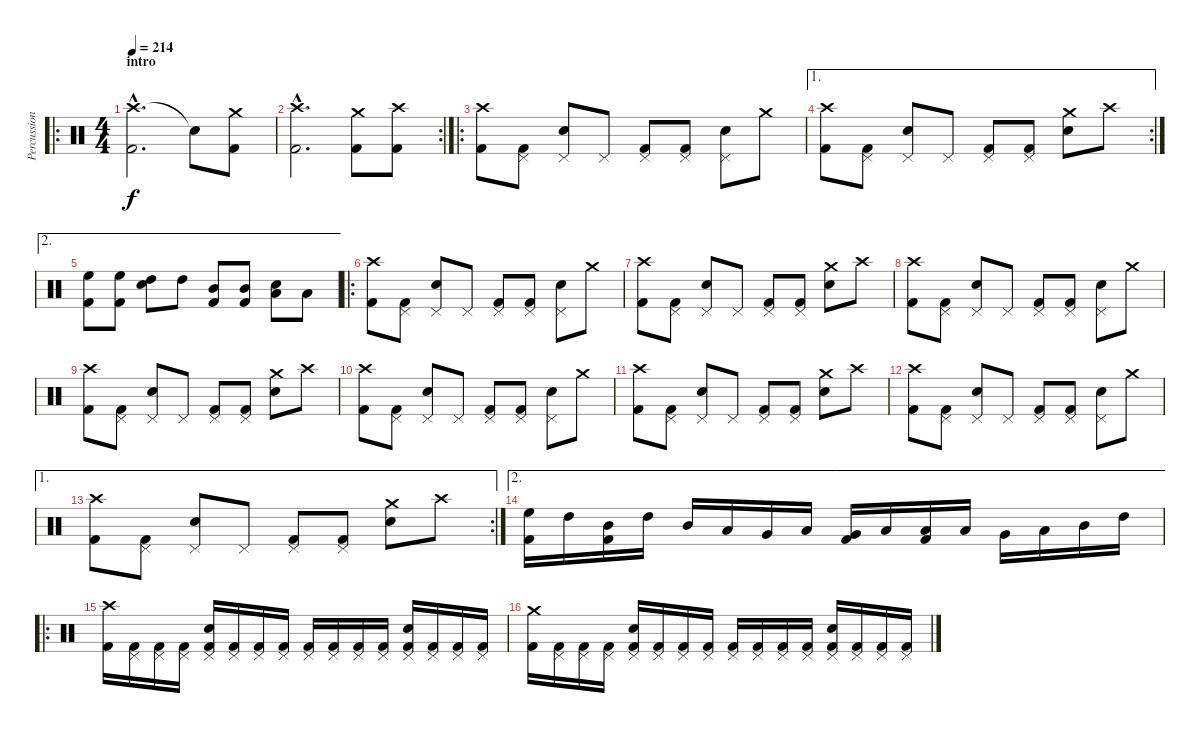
\track ("Percussion" "Percussion") {instrument percussion}
\staff {score}
\articulation defaults
\ro
\ts (4 4)
\section ("" "intro")
\tempo 214
\clef neutral
\ks c
("Crash high (hit)"{hac} "Kick (hit) 2"{hac}).2{d dy f} "Snare (hit)"{t}.8 ("Crash medium (hit)" "Kick (hit) 2").8 |
\rc 2
("Crash high (hit)"{hac} "Kick (hit) 2"{hac}).2{d} ("Crash medium (hit)" "Kick (hit) 2").8 ("Crash high (hit)" "Kick (hit) 2").8 |
\ro
("Crash high (hit)" "Kick (hit) 2").8 ("Pedal Hi-Hat (hit)" "Kick (hit) 2").8 ("Pedal Hi-Hat (hit)" "Snare (hit) 2").8 "Pedal Hi-Hat (hit)".8 ("Pedal Hi-Hat (hit)" "Kick (hit) 2").8 ("Pedal Hi-Hat (hit)" "Kick (hit) 2").8 ("Pedal Hi-Hat (hit)" "Snare (hit) 2").8 "Crash medium (hit)".8 |
\ae 1
\rc 2
("Crash high (hit)" "Kick (hit) 2").8 ("Pedal Hi-Hat (hit)" "Kick (hit) 2").8 ("Pedal Hi-Hat (hit)" "Snare (hit) 2").8 "Pedal Hi-Hat (hit)".8 ("Pedal Hi-Hat (hit)" "Kick (hit) 2").8 ("Pedal Hi-Hat (hit)" "Kick (hit) 2").8 ("Crash medium (hit)" "Snare (hit) 2").8 "Crash high (hit)".8 |
\ae 2
("High Floor Tom (hit)" "Kick (hit) 2").8 ("High Floor Tom (hit)" "Kick (hit) 2").8 ("High Tom (hit)" "Snare (hit) 2").8 "High Tom (hit)".8 ("Mid Tom (hit)" "Kick (hit) 2").8 ("Mid Tom (hit)" "Kick (hit) 2").8 ("Low Tom (hit)" "Snare (hit) 2").8 "Low Tom (hit)".8 |
\ro
("Crash high (hit)" "Kick (hit) 2").8 ("Pedal Hi-Hat (hit)" "Kick (hit) 2").8 ("Pedal Hi-Hat (hit)" "Snare (hit) 2").8 "Pedal Hi-Hat (hit)".8 ("Pedal Hi-Hat (hit)" "Kick (hit) 2").8 ("Pedal Hi-Hat (hit)" "Kick (hit) 2").8 ("Pedal Hi-Hat (hit)" "Snare (hit) 2").8 "Crash medium (hit)".8 |
("Crash high (hit)" "Kick (hit) 2").8 ("Pedal Hi-Hat (hit)" "Kick (hit) 2").8 ("Pedal Hi-Hat (hit)" "Snare (hit) 2").8 "Pedal Hi-Hat (hit)".8 ("Pedal Hi-Hat (hit)" "Kick (hit) 2").8 ("Pedal Hi-Hat (hit)" "Kick (hit) 2").8 ("Crash medium (hit)" "Snare (hit) 2").8 "Crash high (hit)".8 |
("Crash high (hit)" "Kick (hit) 2").8 ("Pedal Hi-Hat (hit)" "Kick (hit) 2").8 ("Pedal Hi-Hat (hit)" "Snare (hit) 2").8 "Pedal Hi-Hat (hit)".8 ("Pedal Hi-Hat (hit)" "Kick (hit) 2").8 ("Pedal Hi-Hat (hit)" "Kick (hit) 2").8 ("Pedal Hi-Hat (hit)" "Snare (hit) 2").8 "Crash medium (hit)".8 |
("Crash high (hit)" "Kick (hit) 2").8 ("Pedal Hi-Hat (hit)" "Kick (hit) 2").8 ("Pedal Hi-Hat (hit)" "Snare (hit) 2").8 "Pedal Hi-Hat (hit)".8 ("Pedal Hi-Hat (hit)" "Kick (hit) 2").8 ("Pedal Hi-Hat (hit)" "Kick (hit) 2").8 ("Crash medium (hit)" "Snare (hit) 2").8 "Crash high (hit)".8 |
("Crash high (hit)" "Kick (hit) 2").8 ("Pedal Hi-Hat (hit)" "Kick (hit) 2").8 ("Pedal Hi-Hat (hit)" "Snare (hit) 2").8 "Pedal Hi-Hat (hit)".8 ("Pedal Hi-Hat (hit)" "Kick (hit) 2").8 ("Pedal Hi-Hat (hit)" "Kick (hit) 2").8 ("Pedal Hi-Hat (hit)" "Snare (hit) 2").8 "Crash medium (hit)".8 |
("Crash high (hit)" "Kick (hit) 2").8 ("Pedal Hi-Hat (hit)" "Kick (hit) 2").8 ("Pedal Hi-Hat (hit)" "Snare (hit) 2").8 "Pedal Hi-Hat (hit)".8 ("Pedal Hi-Hat (hit)" "Kick (hit) 2").8 ("Pedal Hi-Hat (hit)" "Kick (hit) 2").8 ("Crash medium (hit)" "Snare (hit) 2").8 "Crash high (hit)".8 |
("Crash high (hit)" "Kick (hit) 2").8 ("Pedal Hi-Hat (hit)" "Kick (hit) 2").8 ("Pedal Hi-Hat (hit)" "Snare (hit) 2").8 "Pedal Hi-Hat (hit)".8 ("Pedal Hi-Hat (hit)" "Kick (hit) 2").8 ("Pedal Hi-Hat (hit)" "Kick (hit) 2").8 ("Pedal Hi-Hat (hit)" "Snare (hit) 2").8 "Crash medium (hit)".8 |
\ae 1
\rc 2
("Crash high (hit)" "Kick (hit) 2").8 ("Pedal Hi-Hat (hit)" "Kick (hit) 2").8 ("Pedal Hi-Hat (hit)" "Snare (hit) 2").8 "Pedal Hi-Hat (hit)".8 ("Pedal Hi-Hat (hit)" "Kick (hit) 2").8 ("Pedal Hi-Hat (hit)" "Kick (hit) 2").8 ("Crash medium (hit)" "Snare (hit) 2").8 "Crash high (hit)".8 |
\ae 2
("High Floor Tom (hit)" "Kick (hit) 2").16 "High Tom (hit)".16 ("Mid Tom (hit)" "Kick (hit) 2").16 "High Tom (hit)".16 "Mid Tom (hit)".16 "Low Tom (hit)".16 "Very Low Tom (hit)".16 "Low Tom (hit)".16 ("Very Low Tom (hit)" "Kick (hit) 2").16 "Low Floor Tom (hit)".16 ("Low Floor Tom (hit)" "Kick (hit) 2").16 "Low Floor Tom (hit)".16 "Very Low Tom (hit)".16 "Low Tom (hit)".16 "Mid Tom (hit)".16 "High Tom (hit)".16 |
\ro
("Crash high (hit)" "Kick (hit) 2").16 ("Pedal Hi-Hat (hit)" "Kick (hit) 2").16 ("Pedal Hi-Hat (hit)" "Kick (hit) 2").16 ("Pedal Hi-Hat (hit)" "Kick (hit) 2").16 ("Pedal Hi-Hat (hit)" "Snare (hit) 2" "Kick (hit) 2").16 ("Pedal Hi-Hat (hit)" "Kick (hit) 2").16 ("Pedal Hi-Hat (hit)" "Kick (hit) 2").16 ("Pedal Hi-Hat (hit)" "Kick (hit) 2").16 ("Pedal Hi-Hat (hit)" "Kick (hit) 2").16 ("Pedal Hi-Hat (hit)" "Kick (hit) 2").16 ("Pedal Hi-Hat (hit)" "Kick (hit) 2").16 ("Pedal Hi-Hat (hit)" "Kick (hit) 2").16 ("Pedal Hi-Hat (hit)" "Snare (hit) 2" "Kick (hit) 2").16 ("Pedal Hi-Hat (hit)" "Kick (hit) 2").16 ("Pedal Hi-Hat (hit)" "Kick (hit) 2").16 ("Pedal Hi-Hat (hit)" "Kick (hit) 2").16 |
("Crash medium (hit)" "Kick (hit) 2").16 ("Pedal Hi-Hat (hit)" "Kick (hit) 2").16 ("Pedal Hi-Hat (hit)" "Kick (hit) 2").16 ("Pedal Hi-Hat (hit)" "Kick (hit) 2").16 ("Pedal Hi-Hat (hit)" "Snare (hit) 2" "Kick (hit) 2").16 ("Pedal Hi-Hat (hit)" "Kick (hit) 2").16 ("Pedal Hi-Hat (hit)" "Kick (hit) 2").16 ("Pedal Hi-Hat (hit)" "Kick (hit) 2").16 ("Pedal Hi-Hat (hit)" "Kick (hit) 2").16 ("Pedal Hi-Hat (hit)" "Kick (hit) 2").16 ("Pedal Hi-Hat (hit)" "Kick (hit) 2").16 ("Pedal Hi-Hat (hit)" "Kick (hit) 2").16 ("Pedal Hi-Hat (hit)" "Snare (hit) 2" "Kick (hit) 2").16 ("Pedal Hi-Hat (hit)" "Kick (hit) 2").16 ("Pedal Hi-Hat (hit)" "Kick (hit) 2").16 ("Pedal Hi-Hat (hit)" "Kick (hit) 2").16
